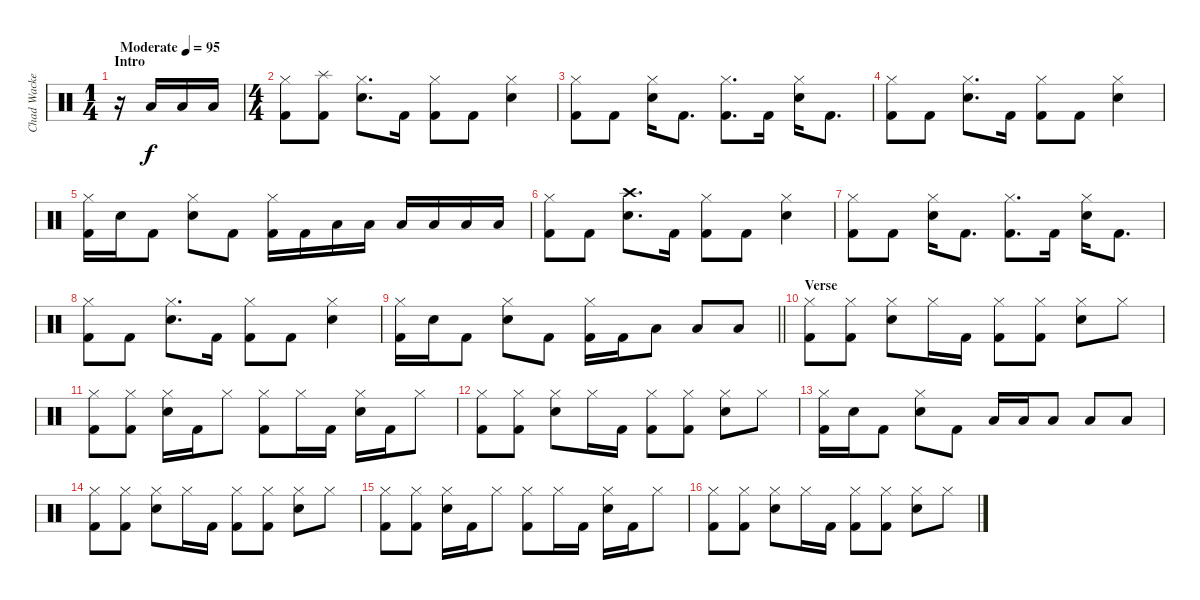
\track ("Chad Wackerman" "Chad Wacke") {instrument percussion}
\staff {score}
\articulation defaults
\ts (1 4)
\section ("" "Intro")
\tempo (95 "Moderate")
\clef neutral
\ks c
r.16{dy f} "Low Floor Tom (hit)".16 "Low Floor Tom (hit)".16 "Low Floor Tom (hit)".16 |
\ts (4 4)
("Hi-Hat (closed)" "Kick (hit) 2").8 ("Splash (hit)" "Kick (hit) 2").8 ("Hi-Hat (closed)" "Electric Snare (hit)").8{d} "Kick (hit) 2".16 ("Hi-Hat (closed)" "Kick (hit) 2").8 "Kick (hit) 2".8 ("Hi-Hat (closed)" "Electric Snare (hit)").4 |
("Hi-Hat (closed)" "Kick (hit) 2").8 "Kick (hit) 2".8 ("Hi-Hat (closed)" "Electric Snare (hit)").16 "Kick (hit) 2".8{d} ("Hi-Hat (closed)" "Kick (hit) 2").8{d} "Kick (hit) 2".16 ("Hi-Hat (closed)" "Electric Snare (hit)").16 "Kick (hit) 2".8{d} |
("Hi-Hat (closed)" "Kick (hit) 2").8 "Kick (hit) 2".8 ("Hi-Hat (closed)" "Electric Snare (hit)").8{d} "Kick (hit) 2".16 ("Hi-Hat (closed)" "Kick (hit) 2").8 "Kick (hit) 2".8 ("Hi-Hat (closed)" "Electric Snare (hit)").4 |
("Hi-Hat (closed)" "Kick (hit) 2").16 "Electric Snare (hit)".16 "Kick (hit) 2".8 ("Hi-Hat (closed)" "Electric Snare (hit)").8 "Kick (hit) 2".8 ("Hi-Hat (closed)" "Kick (hit) 2").16 "Kick (hit) 2".16 "Low Floor Tom (hit)".16 "Low Floor Tom (hit)".16 "Low Floor Tom (hit)".16 "Low Floor Tom (hit)".16 "Low Floor Tom (hit)".16 "Low Floor Tom (hit)".16 |
("Hi-Hat (closed)" "Kick (hit) 2").8 "Kick (hit) 2".8 ("Crash high (hit)" "Electric Snare (hit)").8{d} "Kick (hit) 2".16 ("Hi-Hat (closed)" "Kick (hit) 2").8 "Kick (hit) 2".8 ("Hi-Hat (closed)" "Electric Snare (hit)").4 |
("Hi-Hat (closed)" "Kick (hit) 2").8 "Kick (hit) 2".8 ("Hi-Hat (closed)" "Electric Snare (hit)").16 "Kick (hit) 2".8{d} ("Hi-Hat (closed)" "Kick (hit) 2").8{d} "Kick (hit) 2".16 ("Hi-Hat (closed)" "Electric Snare (hit)").16 "Kick (hit) 2".8{d} |
("Hi-Hat (closed)" "Kick (hit) 2").8 "Kick (hit) 2".8 ("Hi-Hat (closed)" "Electric Snare (hit)").8{d} "Kick (hit) 2".16 ("Hi-Hat (closed)" "Kick (hit) 2").8 "Kick (hit) 2".8 ("Hi-Hat (closed)" "Electric Snare (hit)").4 |
\barLineRight lightlight
("Hi-Hat (closed)" "Kick (hit) 2").16 "Electric Snare (hit)".16 "Kick (hit) 2".8 ("Hi-Hat (closed)" "Electric Snare (hit)").8 "Kick (hit) 2".8 ("Hi-Hat (closed)" "Kick (hit) 2").16 "Kick (hit) 2".16 "Low Floor Tom (hit)".8 "Low Floor Tom (hit)".8 "Low Floor Tom (hit)".8 |
\section ("" "Verse")
("Hi-Hat (closed)" "Kick (hit) 2").8 ("Hi-Hat (closed)" "Kick (hit) 2").8 ("Hi-Hat (closed)" "Electric Snare (hit)").8 "Hi-Hat (closed)".16 "Kick (hit) 2".16 ("Hi-Hat (closed)" "Kick (hit) 2").8 ("Hi-Hat (closed)" "Kick (hit) 2").8 ("Hi-Hat (closed)" "Electric Snare (hit)").8 "Hi-Hat (closed)".8 |
("Hi-Hat (closed)" "Kick (hit) 2").8 ("Hi-Hat (closed)" "Kick (hit) 2").8 ("Hi-Hat (closed)" "Electric Snare (hit)").16 "Kick (hit) 2".16 "Hi-Hat (closed)".8 ("Hi-Hat (closed)" "Kick (hit) 2").8 "Hi-Hat (closed)".16 "Kick (hit) 2".16 ("Hi-Hat (closed)" "Electric Snare (hit)").16 "Kick (hit) 2".16 "Hi-Hat (closed)".8 |
("Hi-Hat (closed)" "Kick (hit) 2").8 ("Hi-Hat (closed)" "Kick (hit) 2").8 ("Hi-Hat (closed)" "Electric Snare (hit)").8 "Hi-Hat (closed)".16 "Kick (hit) 2".16 ("Hi-Hat (closed)" "Kick (hit) 2").8 ("Hi-Hat (closed)" "Kick (hit) 2").8 ("Hi-Hat (closed)" "Electric Snare (hit)").8 "Hi-Hat (closed)".8 |
("Hi-Hat (closed)" "Kick (hit) 2").16 "Electric Snare (hit)".16 "Kick (hit) 2".8 ("Hi-Hat (closed)" "Electric Snare (hit)").8 "Kick (hit) 2".8 "Low Tom (hit)".16 "Low Tom (hit)".16 "Low Floor Tom (hit)".8 "Low Floor Tom (hit)".8 "Low Floor Tom (hit)".8 |
("Hi-Hat (closed)" "Kick (hit) 2").8 ("Hi-Hat (closed)" "Kick (hit) 2").8 ("Hi-Hat (closed)" "Electric Snare (hit)").8 "Hi-Hat (closed)".16 "Kick (hit) 2".16 ("Hi-Hat (closed)" "Kick (hit) 2").8 ("Hi-Hat (closed)" "Kick (hit) 2").8 ("Hi-Hat (closed)" "Electric Snare (hit)").8 "Hi-Hat (closed)".8 |
("Hi-Hat (closed)" "Kick (hit) 2").8 ("Hi-Hat (closed)" "Kick (hit) 2").8 ("Hi-Hat (closed)" "Electric Snare (hit)").16 "Kick (hit) 2".16 "Hi-Hat (closed)".8 ("Hi-Hat (closed)" "Kick (hit) 2").8 "Hi-Hat (closed)".16 "Kick (hit) 2".16 ("Hi-Hat (closed)" "Electric Snare (hit)").16 "Kick (hit) 2".16 "Hi-Hat (closed)".8 |
("Hi-Hat (closed)" "Kick (hit) 2").8 ("Hi-Hat (closed)" "Kick (hit) 2").8 ("Hi-Hat (closed)" "Electric Snare (hit)").8 "Hi-Hat (closed)".16 "Kick (hit) 2".16 ("Hi-Hat (closed)" "Kick (hit) 2").8 ("Hi-Hat (closed)" "Kick (hit) 2").8 ("Hi-Hat (closed)" "Electric Snare (hit)").8 "Hi-Hat (closed)".8
